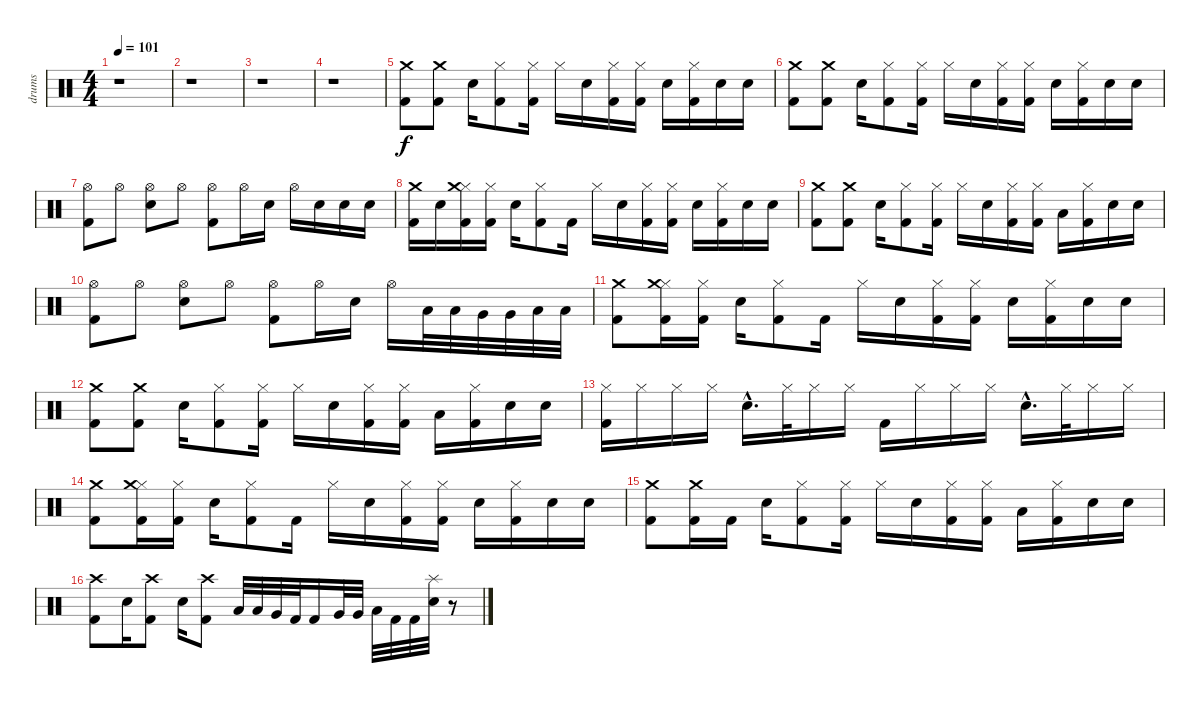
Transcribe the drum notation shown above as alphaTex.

\track ("drums" "drums") {instrument percussion}
\staff {score}
\articulation defaults
\ts (4 4)
\tempo 101
\clef neutral
\ks c
r.1{dy f} |
r.1 |
r.1 |
r.1 |
("Crash medium (hit)" "Kick (hit) 2").8 ("Crash medium (hit)" "Kick (hit) 2").8 "Electric Snare (hit)".16 ("Hi-Hat (closed)" "Kick (hit) 2").8 ("Hi-Hat (closed)" "Kick (hit) 2").16 "Hi-Hat (closed)".16 "Electric Snare (hit)".16 ("Hi-Hat (closed)" "Kick (hit) 2").16 ("Hi-Hat (closed)" "Kick (hit) 2").16 "Electric Snare (hit)".16 ("Hi-Hat (closed)" "Kick (hit) 2").16 "Electric Snare (hit)".16 "Electric Snare (hit)".16 |
("Crash medium (hit)" "Kick (hit) 2").8 ("Crash medium (hit)" "Kick (hit) 2").8 "Electric Snare (hit)".16 ("Hi-Hat (closed)" "Kick (hit) 2").8 ("Hi-Hat (closed)" "Kick (hit) 2").16 "Hi-Hat (closed)".16 "Electric Snare (hit)".16 ("Hi-Hat (closed)" "Kick (hit) 2").16 ("Hi-Hat (closed)" "Kick (hit) 2").16 "Electric Snare (hit)".16 ("Hi-Hat (closed)" "Kick (hit) 2").16 "Electric Snare (hit)".16 "Electric Snare (hit)".16 |
("Hi-Hat (open)" "Kick (hit) 2").8 "Hi-Hat (open)".8 ("Hi-Hat (open)" "Electric Snare (hit)").8 "Hi-Hat (open)".8 ("Hi-Hat (open)" "Kick (hit) 2").8 "Hi-Hat (open)".16 "Electric Snare (hit)".16 "Hi-Hat (open)".16 "Electric Snare (hit)".16 "Electric Snare (hit)".16 "Electric Snare (hit)".16 |
("Crash medium (hit)" "Kick (hit) 2").16 "Electric Snare (hit)".16 ("Hi-Hat (closed)" "Crash medium (hit)" "Kick (hit) 2").16 ("Hi-Hat (closed)" "Kick (hit) 2").16 "Electric Snare (hit)".16 ("Hi-Hat (closed)" "Kick (hit) 2").8 "Kick (hit) 2".16 "Hi-Hat (closed)".16 "Electric Snare (hit)".16 ("Hi-Hat (closed)" "Kick (hit) 2").16 ("Hi-Hat (closed)" "Kick (hit) 2").16 "Electric Snare (hit)".16 ("Hi-Hat (closed)" "Kick (hit) 2").16 "Electric Snare (hit)".16 "Electric Snare (hit)".16 |
("Crash medium (hit)" "Kick (hit) 2").8 ("Crash medium (hit)" "Kick (hit) 2").8 "Electric Snare (hit)".16 ("Hi-Hat (closed)" "Kick (hit) 2").8 ("Hi-Hat (closed)" "Kick (hit) 2").16 "Hi-Hat (closed)".16 "Electric Snare (hit)".16 ("Hi-Hat (closed)" "Kick (hit) 2").16 ("Hi-Hat (closed)" "Kick (hit) 2").16 "Low Tom (hit)".16 ("Hi-Hat (closed)" "Kick (hit) 2").16 "Electric Snare (hit)".16 "Electric Snare (hit)".16 |
("Hi-Hat (open)" "Kick (hit) 2").8 "Hi-Hat (open)".8 ("Hi-Hat (open)" "Electric Snare (hit)").8 "Hi-Hat (open)".8 ("Hi-Hat (open)" "Kick (hit) 2").8 "Hi-Hat (open)".16 "Electric Snare (hit)".16 "Hi-Hat (open)".16 "Low Tom (hit)".32 "Low Tom (hit)".32 "Very Low Tom (hit)".32 "Very Low Tom (hit)".32 "Low Floor Tom (hit)".32 "Low Floor Tom (hit)".32 |
("Crash medium (hit)" "Kick (hit) 2").8 ("Hi-Hat (closed)" "Crash medium (hit)" "Kick (hit) 2").16 ("Hi-Hat (closed)" "Kick (hit) 2").16 "Electric Snare (hit)".16 ("Hi-Hat (closed)" "Kick (hit) 2").8 "Kick (hit) 2".16 "Hi-Hat (closed)".16 "Electric Snare (hit)".16 ("Hi-Hat (closed)" "Kick (hit) 2").16 ("Hi-Hat (closed)" "Kick (hit) 2").16 "Electric Snare (hit)".16 ("Hi-Hat (closed)" "Kick (hit) 2").16 "Electric Snare (hit)".16 "Electric Snare (hit)".16 |
("Crash medium (hit)" "Kick (hit) 2").8 ("Crash medium (hit)" "Kick (hit) 2").8 "Electric Snare (hit)".16 ("Hi-Hat (closed)" "Kick (hit) 2").8 ("Hi-Hat (closed)" "Kick (hit) 2").16 "Hi-Hat (closed)".16 "Electric Snare (hit)".16 ("Hi-Hat (closed)" "Kick (hit) 2").16 ("Hi-Hat (closed)" "Kick (hit) 2").16 "Low Tom (hit)".16 ("Hi-Hat (closed)" "Kick (hit) 2").16 "Electric Snare (hit)".16 "Electric Snare (hit)".16 |
("Hi-Hat (closed)" "Kick (hit) 2").16 "Hi-Hat (closed)".16 "Hi-Hat (closed)".16 "Hi-Hat (closed)".16 "Electric Snare (hit)"{hac}.16{d} "Hi-Hat (closed)".32 "Hi-Hat (closed)".16 "Hi-Hat (closed)".16 "Kick (hit) 2".16 "Hi-Hat (closed)".16 "Hi-Hat (closed)".16 "Hi-Hat (closed)".16 "Electric Snare (hit)"{hac}.16{d} "Hi-Hat (closed)".32 "Hi-Hat (closed)".16 "Hi-Hat (closed)".16 |
("Crash medium (hit)" "Kick (hit) 2").8 ("Hi-Hat (closed)" "Crash medium (hit)" "Kick (hit) 2").16 ("Hi-Hat (closed)" "Kick (hit) 2").16 "Electric Snare (hit)".16 ("Hi-Hat (closed)" "Kick (hit) 2").8 "Kick (hit) 2".16 "Hi-Hat (closed)".16 "Electric Snare (hit)".16 ("Hi-Hat (closed)" "Kick (hit) 2").16 ("Hi-Hat (closed)" "Kick (hit) 2").16 "Electric Snare (hit)".16 ("Hi-Hat (closed)" "Kick (hit) 2").16 "Electric Snare (hit)".16 "Electric Snare (hit)".16 |
("Crash medium (hit)" "Kick (hit) 2").8 ("Crash medium (hit)" "Kick (hit) 2").16 "Kick (hit) 2".16 "Electric Snare (hit)".16 ("Hi-Hat (closed)" "Kick (hit) 2").8 ("Hi-Hat (closed)" "Kick (hit) 2").16 "Hi-Hat (closed)".16 "Electric Snare (hit)".16 ("Hi-Hat (closed)" "Kick (hit) 2").16 ("Hi-Hat (closed)" "Kick (hit) 2").16 "Low Tom (hit)".16 ("Hi-Hat (closed)" "Kick (hit) 2").16 "Electric Snare (hit)".16 "Electric Snare (hit)".16 |
("Crash high (hit)" "Kick (hit) 2").8 "Electric Snare (hit)".16 ("Crash high (hit)" "Kick (hit) 2").8 "Electric Snare (hit)".16 ("Crash high (hit)" "Kick (hit) 2").8 "Low Tom (hit)".32 "Low Tom (hit)".32 "Very Low Tom (hit)".32 "Kick (hit) 2".32 "Kick (hit) 2".16 "Very Low Tom (hit)".32 "Very Low Tom (hit)".32 "Low Floor Tom (hit)".32 "Kick (hit) 2".32 "Kick (hit) 2".32 ("Splash (hit)" "Electric Snare (hit)").32 r.8
